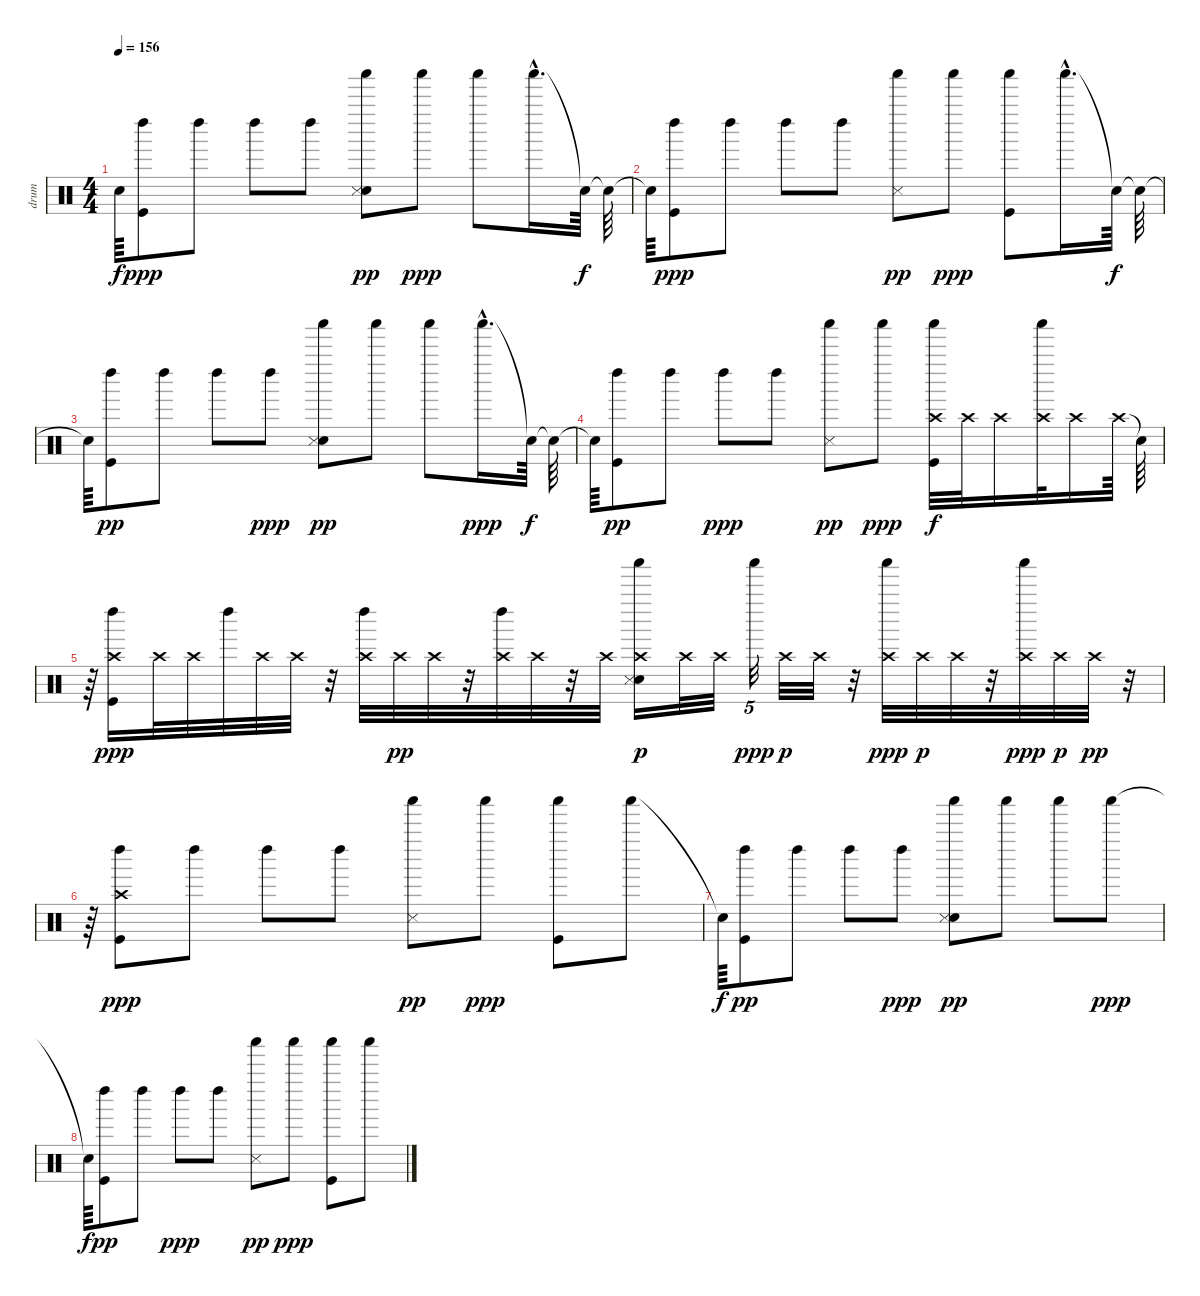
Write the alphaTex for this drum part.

\track ("drum" "drum") {instrument percussion}
\staff {score}
\articulation defaults
\ts (4 4)
\tempo 156
\clef neutral
\ks c "Snare (hit)"{t}.64{dy f}
("Left Maraca (hit)" "Kick (hit)").8{dy ppp} "Left Maraca (hit)".8 "Left Maraca (hit)".8 "Left Maraca (hit)".8 ("Snare (hit) 2" "Shaker (hit)" "Snare (side stick) 3").8{dy pp} "Shaker (hit)".8{dy ppp} "Shaker (hit)".8 "Shaker (hit)"{hac}.16{d} "Snare (hit)"{t}.64{dy f} "Snare (hit)"{t}.64 |
"Snare (hit)"{t}.64 ("Left Maraca (hit)" "Kick (hit)").8{dy ppp} "Left Maraca (hit)".8 "Left Maraca (hit)".8 "Left Maraca (hit)".8 ("Snare (side stick) 3" "Shaker (hit)").8{dy pp} "Shaker (hit)".8{dy ppp} ("Kick (hit)" "Shaker (hit)").8 "Shaker (hit)"{hac}.16{d} "Snare (hit)"{t}.64{dy f} "Snare (hit)"{t}.64 |
"Snare (hit)"{t}.64 ("Left Maraca (hit)" "Kick (hit)").8{dy pp} "Left Maraca (hit)".8 "Left Maraca (hit)".8 "Left Maraca (hit)".8{dy ppp} ("Snare (hit) 2" "Snare (side stick) 3" "Shaker (hit)").8{dy pp} "Shaker (hit)".8 "Shaker (hit)".8 "Shaker (hit)"{hac}.16{d dy ppp} "Snare (hit)"{t}.64{dy f} "Snare (hit)"{t}.64 |
"Snare (hit)"{t}.64 ("Kick (hit)" "Left Maraca (hit)").8{dy pp} "Left Maraca (hit)".8 "Left Maraca (hit)".8{dy ppp} "Left Maraca (hit)".8 ("Snare (side stick) 3" "Shaker (hit)").8{dy pp} "Shaker (hit)".8{dy ppp} ("Kick (hit)" "Shaker (hit)" "Crash high (hit)").32{dy f} "Crash high (hit)".32 "Crash high (hit)".16 ("Shaker (hit)" "Crash high (hit)").32 "Crash high (hit)".16 "Crash high (hit)".64 "Snare (hit)"{t}.64 |
r.64 ("Left Maraca (hit)" "Kick (hit)" "Crash high (hit)").16{dy ppp} "Crash high (hit)".32 "Crash high (hit)".32 "Left Maraca (hit)".32 "Crash high (hit)".32 "Crash high (hit)".32 r.32 ("Crash high (hit)" "Left Maraca (hit)").32 "Crash high (hit)".32{dy pp} "Crash high (hit)".32 r.32 ("Left Maraca (hit)" "Crash high (hit)").32 "Crash high (hit)".32 r.32 "Crash high (hit)".32 ("Snare (hit) 2" "Shaker (hit)" "Snare (side stick) 3" "Crash high (hit)").16{dy p} "Crash high (hit)".32 "Crash high (hit)".32 "Shaker (hit)".32{tu (5 4) dy ppp} "Crash high (hit)".32{dy p} "Crash high (hit)".32 r.32 ("Crash high (hit)" "Shaker (hit)").32{dy ppp} "Crash high (hit)".32{dy p} "Crash high (hit)".32 r.32 ("Crash high (hit)" "Shaker (hit)").32{dy ppp} "Crash high (hit)".32{dy p} "Crash high (hit)".32{dy pp} r.32 |
r.64 ("Left Maraca (hit)" "Crash high (hit)" "Kick (hit)").8{dy ppp} "Left Maraca (hit)".8 "Left Maraca (hit)".8 "Left Maraca (hit)".8 ("Snare (side stick) 3" "Shaker (hit)").8{dy pp} "Shaker (hit)".8{dy ppp} ("Kick (hit)" "Shaker (hit)").8 "Shaker (hit)".8 |
"Snare (hit)"{t}.64{dy f} ("Left Maraca (hit)" "Kick (hit)").8{dy pp} "Left Maraca (hit)".8 "Left Maraca (hit)".8 "Left Maraca (hit)".8{dy ppp} ("Snare (hit) 2" "Snare (side stick) 3" "Shaker (hit)").8{dy pp} "Shaker (hit)".8 "Shaker (hit)".8 "Shaker (hit)".8{dy ppp} |
"Snare (hit)"{t}.64{dy f} ("Kick (hit)" "Left Maraca (hit)").8{dy pp} "Left Maraca (hit)".8 "Left Maraca (hit)".8{dy ppp} "Left Maraca (hit)".8 ("Snare (side stick) 3" "Shaker (hit)").8{dy pp} "Shaker (hit)".8{dy ppp} ("Kick (hit)" "Shaker (hit)").8 "Shaker (hit)".8
